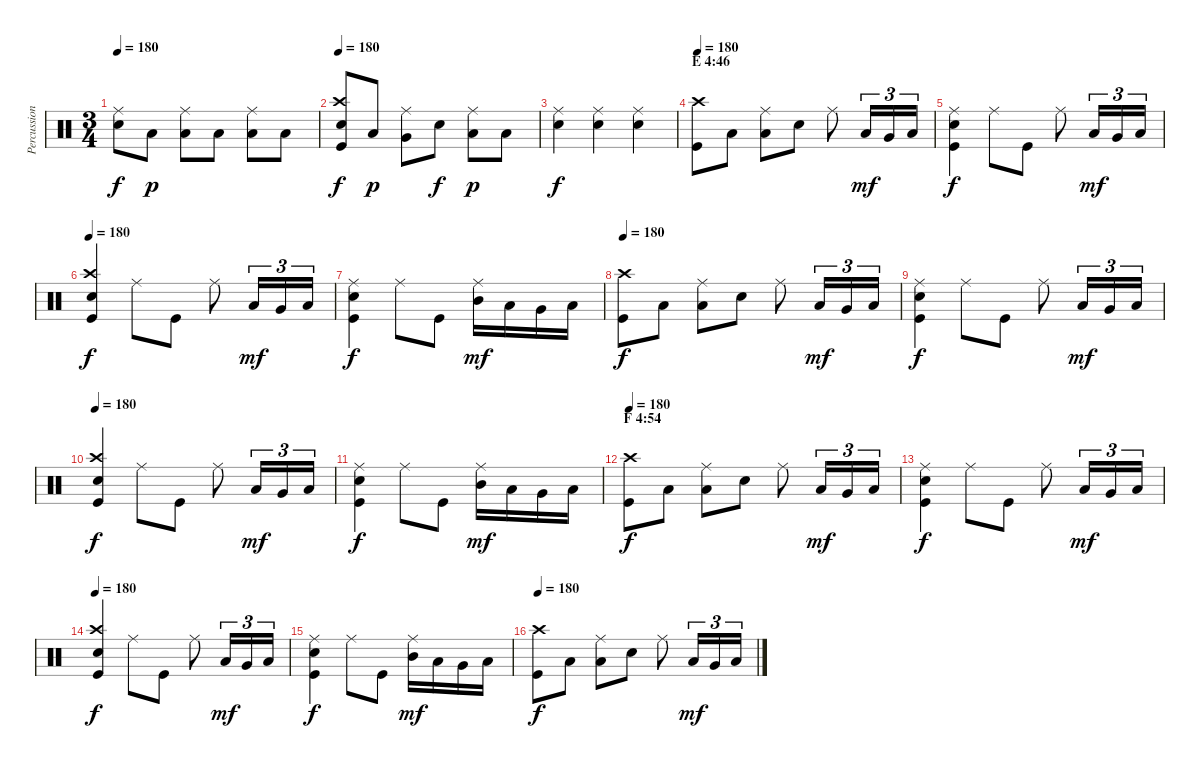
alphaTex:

\track ("Percussion" "Percussion") {instrument percussion}
\staff {score}
\articulation defaults
\ts (3 4)
\tempo 180
\clef neutral
\ks c
("Ride (middle)" "Electric Snare (hit)").8{dy f} "Low Tom (hit)".8{dy p} ("Ride (middle)" "Low Floor Tom (hit)").8 "Low Floor Tom (hit)".8 ("Ride (middle)" "Low Floor Tom (hit)").8 "Low Floor Tom (hit)".8 |
\tempo 180
("Crash high (hit)" "Electric Snare (hit)" "Kick (hit)").8{dy f} "Low Tom (hit)".8{dy p} ("Ride (middle)" "Very Low Tom (hit)").8 "Electric Snare (hit)".8{dy f} ("Ride (middle)" "Low Floor Tom (hit)").8{dy p} "Low Floor Tom (hit)".8 |
("Ride (middle)" "Electric Snare (hit)").4{dy f} ("Ride (middle)" "Electric Snare (hit)").4 ("Ride (middle)" "Electric Snare (hit)").4 |
\section ("" "E 4:46")
\tempo 180
("Crash high (hit)" "Kick (hit)").8 "Low Floor Tom (hit)".8 ("Ride (middle)" "Low Floor Tom (hit)").8 "Electric Snare (hit)".8 "Ride (middle)".8 "Low Tom (hit)".16{tu (3 2) dy mf} "Very Low Tom (hit)".16{tu (3 2)} "Low Floor Tom (hit)".16{tu (3 2)} |
("Ride (middle)" "Electric Snare (hit)" "Kick (hit)").4{dy f} "Ride (middle)".8 "Kick (hit)".8 "Ride (middle)".8 "Low Tom (hit)".16{tu (3 2) dy mf} "Very Low Tom (hit)".16{tu (3 2)} "Low Floor Tom (hit)".16{tu (3 2)} |
\tempo 180
("Crash high (hit)" "Electric Snare (hit)" "Kick (hit)").4{dy f} "Ride (middle)".8 "Kick (hit)".8 "Ride (middle)".8 "Low Tom (hit)".16{tu (3 2) dy mf} "Very Low Tom (hit)".16{tu (3 2)} "Low Floor Tom (hit)".16{tu (3 2)} |
("Ride (middle)" "Electric Snare (hit)" "Kick (hit)").4{dy f} "Ride (middle)".8 "Kick (hit)".8 ("Ride (middle)" "Mid Tom (hit)").16{dy mf} "Low Tom (hit)".16 "Very Low Tom (hit)".16 "Low Floor Tom (hit)".16 |
\tempo 180
("Crash high (hit)" "Kick (hit)").8{dy f} "Low Floor Tom (hit)".8 ("Ride (middle)" "Low Floor Tom (hit)").8 "Electric Snare (hit)".8 "Ride (middle)".8 "Low Tom (hit)".16{tu (3 2) dy mf} "Very Low Tom (hit)".16{tu (3 2)} "Low Floor Tom (hit)".16{tu (3 2)} |
("Ride (middle)" "Electric Snare (hit)" "Kick (hit)").4{dy f} "Ride (middle)".8 "Kick (hit)".8 "Ride (middle)".8 "Low Tom (hit)".16{tu (3 2) dy mf} "Very Low Tom (hit)".16{tu (3 2)} "Low Floor Tom (hit)".16{tu (3 2)} |
\tempo 180
("Crash high (hit)" "Electric Snare (hit)" "Kick (hit)").4{dy f} "Ride (middle)".8 "Kick (hit)".8 "Ride (middle)".8 "Low Tom (hit)".16{tu (3 2) dy mf} "Very Low Tom (hit)".16{tu (3 2)} "Low Floor Tom (hit)".16{tu (3 2)} |
("Ride (middle)" "Electric Snare (hit)" "Kick (hit)").4{dy f} "Ride (middle)".8 "Kick (hit)".8 ("Ride (middle)" "Mid Tom (hit)").16{dy mf} "Low Tom (hit)".16 "Very Low Tom (hit)".16 "Low Floor Tom (hit)".16 |
\section ("" "F 4:54")
\tempo 180
("Crash high (hit)" "Kick (hit)").8{dy f} "Low Floor Tom (hit)".8 ("Ride (middle)" "Low Floor Tom (hit)").8 "Electric Snare (hit)".8 "Ride (middle)".8 "Low Tom (hit)".16{tu (3 2) dy mf} "Very Low Tom (hit)".16{tu (3 2)} "Low Floor Tom (hit)".16{tu (3 2)} |
("Ride (middle)" "Electric Snare (hit)" "Kick (hit)").4{dy f} "Ride (middle)".8 "Kick (hit)".8 "Ride (middle)".8 "Low Tom (hit)".16{tu (3 2) dy mf} "Very Low Tom (hit)".16{tu (3 2)} "Low Floor Tom (hit)".16{tu (3 2)} |
\tempo 180
("Crash high (hit)" "Electric Snare (hit)" "Kick (hit)").4{dy f} "Ride (middle)".8 "Kick (hit)".8 "Ride (middle)".8 "Low Tom (hit)".16{tu (3 2) dy mf} "Very Low Tom (hit)".16{tu (3 2)} "Low Floor Tom (hit)".16{tu (3 2)} |
("Ride (middle)" "Electric Snare (hit)" "Kick (hit)").4{dy f} "Ride (middle)".8 "Kick (hit)".8 ("Ride (middle)" "Mid Tom (hit)").16{dy mf} "Low Tom (hit)".16 "Very Low Tom (hit)".16 "Low Floor Tom (hit)".16 |
\tempo 180
("Crash high (hit)" "Kick (hit)").8{dy f} "Low Floor Tom (hit)".8 ("Ride (middle)" "Low Floor Tom (hit)").8 "Electric Snare (hit)".8 "Ride (middle)".8 "Low Tom (hit)".16{tu (3 2) dy mf} "Very Low Tom (hit)".16{tu (3 2)} "Low Floor Tom (hit)".16{tu (3 2)}
